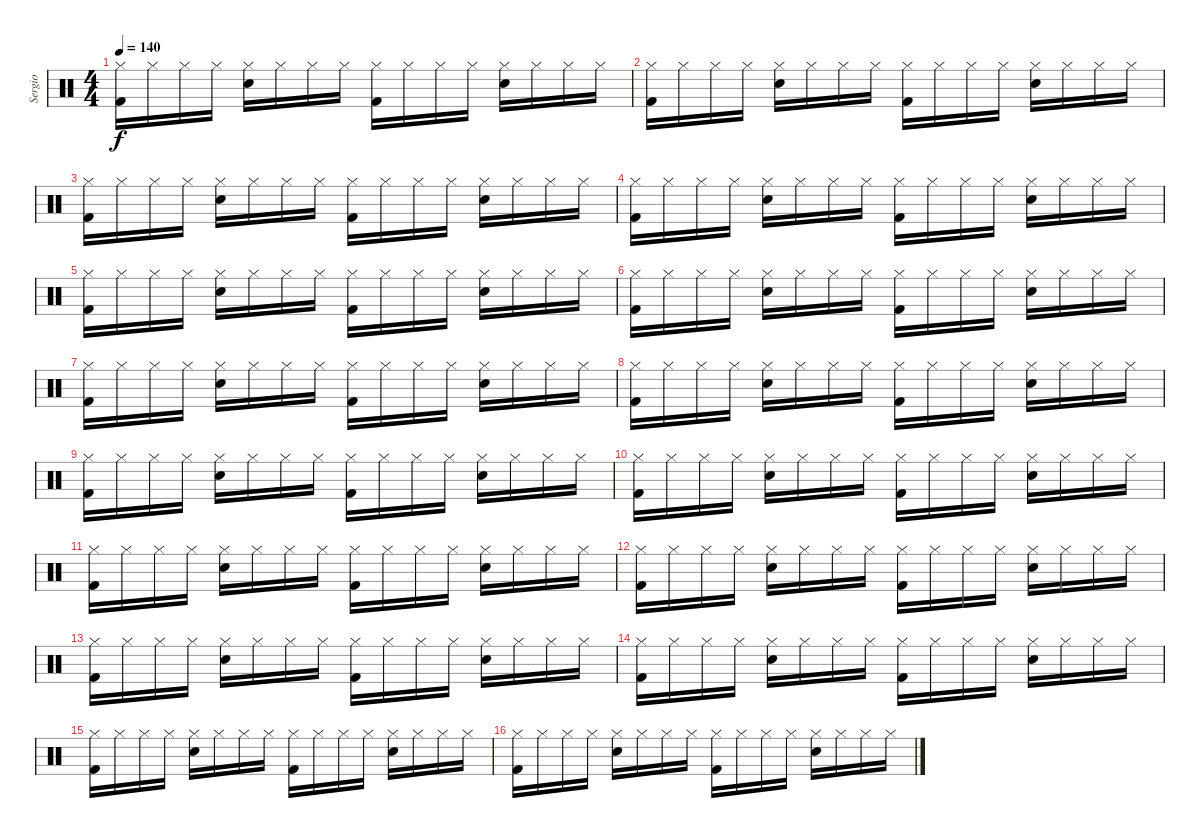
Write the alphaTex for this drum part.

\track ("Sergio" "Sergio") {instrument percussion}
\staff {score}
\articulation defaults
\ts (4 4)
\tempo 140
\clef neutral
\ks c
("Hi-Hat (closed)" "Kick (hit) 2").16{dy f} "Hi-Hat (closed)".16 "Hi-Hat (closed)".16 "Hi-Hat (closed)".16 ("Hi-Hat (closed)" "Electric Snare (hit)").16 "Hi-Hat (closed)".16 "Hi-Hat (closed)".16 "Hi-Hat (closed)".16 ("Hi-Hat (closed)" "Kick (hit) 2").16 "Hi-Hat (closed)".16 "Hi-Hat (closed)".16 "Hi-Hat (closed)".16 ("Hi-Hat (closed)" "Electric Snare (hit)").16 "Hi-Hat (closed)".16 "Hi-Hat (closed)".16 "Hi-Hat (closed)".16 |
("Hi-Hat (closed)" "Kick (hit) 2").16 "Hi-Hat (closed)".16 "Hi-Hat (closed)".16 "Hi-Hat (closed)".16 ("Hi-Hat (closed)" "Electric Snare (hit)").16 "Hi-Hat (closed)".16 "Hi-Hat (closed)".16 "Hi-Hat (closed)".16 ("Hi-Hat (closed)" "Kick (hit) 2").16 "Hi-Hat (closed)".16 "Hi-Hat (closed)".16 "Hi-Hat (closed)".16 ("Hi-Hat (closed)" "Electric Snare (hit)").16 "Hi-Hat (closed)".16 "Hi-Hat (closed)".16 "Hi-Hat (closed)".16 |
("Hi-Hat (closed)" "Kick (hit) 2").16 "Hi-Hat (closed)".16 "Hi-Hat (closed)".16 "Hi-Hat (closed)".16 ("Hi-Hat (closed)" "Electric Snare (hit)").16 "Hi-Hat (closed)".16 "Hi-Hat (closed)".16 "Hi-Hat (closed)".16 ("Hi-Hat (closed)" "Kick (hit) 2").16 "Hi-Hat (closed)".16 "Hi-Hat (closed)".16 "Hi-Hat (closed)".16 ("Hi-Hat (closed)" "Electric Snare (hit)").16 "Hi-Hat (closed)".16 "Hi-Hat (closed)".16 "Hi-Hat (closed)".16 |
("Hi-Hat (closed)" "Kick (hit) 2").16 "Hi-Hat (closed)".16 "Hi-Hat (closed)".16 "Hi-Hat (closed)".16 ("Hi-Hat (closed)" "Electric Snare (hit)").16 "Hi-Hat (closed)".16 "Hi-Hat (closed)".16 "Hi-Hat (closed)".16 ("Hi-Hat (closed)" "Kick (hit) 2").16 "Hi-Hat (closed)".16 "Hi-Hat (closed)".16 "Hi-Hat (closed)".16 ("Hi-Hat (closed)" "Electric Snare (hit)").16 "Hi-Hat (closed)".16 "Hi-Hat (closed)".16 "Hi-Hat (closed)".16 |
("Hi-Hat (closed)" "Kick (hit) 2").16 "Hi-Hat (closed)".16 "Hi-Hat (closed)".16 "Hi-Hat (closed)".16 ("Hi-Hat (closed)" "Electric Snare (hit)").16 "Hi-Hat (closed)".16 "Hi-Hat (closed)".16 "Hi-Hat (closed)".16 ("Hi-Hat (closed)" "Kick (hit) 2").16 "Hi-Hat (closed)".16 "Hi-Hat (closed)".16 "Hi-Hat (closed)".16 ("Hi-Hat (closed)" "Electric Snare (hit)").16 "Hi-Hat (closed)".16 "Hi-Hat (closed)".16 "Hi-Hat (closed)".16 |
("Hi-Hat (closed)" "Kick (hit) 2").16 "Hi-Hat (closed)".16 "Hi-Hat (closed)".16 "Hi-Hat (closed)".16 ("Hi-Hat (closed)" "Electric Snare (hit)").16 "Hi-Hat (closed)".16 "Hi-Hat (closed)".16 "Hi-Hat (closed)".16 ("Hi-Hat (closed)" "Kick (hit) 2").16 "Hi-Hat (closed)".16 "Hi-Hat (closed)".16 "Hi-Hat (closed)".16 ("Hi-Hat (closed)" "Electric Snare (hit)").16 "Hi-Hat (closed)".16 "Hi-Hat (closed)".16 "Hi-Hat (closed)".16 |
("Hi-Hat (closed)" "Kick (hit) 2").16 "Hi-Hat (closed)".16 "Hi-Hat (closed)".16 "Hi-Hat (closed)".16 ("Hi-Hat (closed)" "Electric Snare (hit)").16 "Hi-Hat (closed)".16 "Hi-Hat (closed)".16 "Hi-Hat (closed)".16 ("Hi-Hat (closed)" "Kick (hit) 2").16 "Hi-Hat (closed)".16 "Hi-Hat (closed)".16 "Hi-Hat (closed)".16 ("Hi-Hat (closed)" "Electric Snare (hit)").16 "Hi-Hat (closed)".16 "Hi-Hat (closed)".16 "Hi-Hat (closed)".16 |
("Hi-Hat (closed)" "Kick (hit) 2").16 "Hi-Hat (closed)".16 "Hi-Hat (closed)".16 "Hi-Hat (closed)".16 ("Hi-Hat (closed)" "Electric Snare (hit)").16 "Hi-Hat (closed)".16 "Hi-Hat (closed)".16 "Hi-Hat (closed)".16 ("Hi-Hat (closed)" "Kick (hit) 2").16 "Hi-Hat (closed)".16 "Hi-Hat (closed)".16 "Hi-Hat (closed)".16 ("Hi-Hat (closed)" "Electric Snare (hit)").16 "Hi-Hat (closed)".16 "Hi-Hat (closed)".16 "Hi-Hat (closed)".16 |
("Hi-Hat (closed)" "Kick (hit) 2").16 "Hi-Hat (closed)".16 "Hi-Hat (closed)".16 "Hi-Hat (closed)".16 ("Hi-Hat (closed)" "Electric Snare (hit)").16 "Hi-Hat (closed)".16 "Hi-Hat (closed)".16 "Hi-Hat (closed)".16 ("Hi-Hat (closed)" "Kick (hit) 2").16 "Hi-Hat (closed)".16 "Hi-Hat (closed)".16 "Hi-Hat (closed)".16 ("Hi-Hat (closed)" "Electric Snare (hit)").16 "Hi-Hat (closed)".16 "Hi-Hat (closed)".16 "Hi-Hat (closed)".16 |
("Hi-Hat (closed)" "Kick (hit) 2").16 "Hi-Hat (closed)".16 "Hi-Hat (closed)".16 "Hi-Hat (closed)".16 ("Hi-Hat (closed)" "Electric Snare (hit)").16 "Hi-Hat (closed)".16 "Hi-Hat (closed)".16 "Hi-Hat (closed)".16 ("Hi-Hat (closed)" "Kick (hit) 2").16 "Hi-Hat (closed)".16 "Hi-Hat (closed)".16 "Hi-Hat (closed)".16 ("Hi-Hat (closed)" "Electric Snare (hit)").16 "Hi-Hat (closed)".16 "Hi-Hat (closed)".16 "Hi-Hat (closed)".16 |
("Hi-Hat (closed)" "Kick (hit) 2").16 "Hi-Hat (closed)".16 "Hi-Hat (closed)".16 "Hi-Hat (closed)".16 ("Hi-Hat (closed)" "Electric Snare (hit)").16 "Hi-Hat (closed)".16 "Hi-Hat (closed)".16 "Hi-Hat (closed)".16 ("Hi-Hat (closed)" "Kick (hit) 2").16 "Hi-Hat (closed)".16 "Hi-Hat (closed)".16 "Hi-Hat (closed)".16 ("Hi-Hat (closed)" "Electric Snare (hit)").16 "Hi-Hat (closed)".16 "Hi-Hat (closed)".16 "Hi-Hat (closed)".16 |
("Hi-Hat (closed)" "Kick (hit) 2").16 "Hi-Hat (closed)".16 "Hi-Hat (closed)".16 "Hi-Hat (closed)".16 ("Hi-Hat (closed)" "Electric Snare (hit)").16 "Hi-Hat (closed)".16 "Hi-Hat (closed)".16 "Hi-Hat (closed)".16 ("Hi-Hat (closed)" "Kick (hit) 2").16 "Hi-Hat (closed)".16 "Hi-Hat (closed)".16 "Hi-Hat (closed)".16 ("Hi-Hat (closed)" "Electric Snare (hit)").16 "Hi-Hat (closed)".16 "Hi-Hat (closed)".16 "Hi-Hat (closed)".16 |
("Hi-Hat (closed)" "Kick (hit) 2").16 "Hi-Hat (closed)".16 "Hi-Hat (closed)".16 "Hi-Hat (closed)".16 ("Hi-Hat (closed)" "Electric Snare (hit)").16 "Hi-Hat (closed)".16 "Hi-Hat (closed)".16 "Hi-Hat (closed)".16 ("Hi-Hat (closed)" "Kick (hit) 2").16 "Hi-Hat (closed)".16 "Hi-Hat (closed)".16 "Hi-Hat (closed)".16 ("Hi-Hat (closed)" "Electric Snare (hit)").16 "Hi-Hat (closed)".16 "Hi-Hat (closed)".16 "Hi-Hat (closed)".16 |
("Hi-Hat (closed)" "Kick (hit) 2").16 "Hi-Hat (closed)".16 "Hi-Hat (closed)".16 "Hi-Hat (closed)".16 ("Hi-Hat (closed)" "Electric Snare (hit)").16 "Hi-Hat (closed)".16 "Hi-Hat (closed)".16 "Hi-Hat (closed)".16 ("Hi-Hat (closed)" "Kick (hit) 2").16 "Hi-Hat (closed)".16 "Hi-Hat (closed)".16 "Hi-Hat (closed)".16 ("Hi-Hat (closed)" "Electric Snare (hit)").16 "Hi-Hat (closed)".16 "Hi-Hat (closed)".16 "Hi-Hat (closed)".16 |
("Hi-Hat (closed)" "Kick (hit) 2").16 "Hi-Hat (closed)".16 "Hi-Hat (closed)".16 "Hi-Hat (closed)".16 ("Hi-Hat (closed)" "Electric Snare (hit)").16 "Hi-Hat (closed)".16 "Hi-Hat (closed)".16 "Hi-Hat (closed)".16 ("Hi-Hat (closed)" "Kick (hit) 2").16 "Hi-Hat (closed)".16 "Hi-Hat (closed)".16 "Hi-Hat (closed)".16 ("Hi-Hat (closed)" "Electric Snare (hit)").16 "Hi-Hat (closed)".16 "Hi-Hat (closed)".16 "Hi-Hat (closed)".16 |
("Hi-Hat (closed)" "Kick (hit) 2").16 "Hi-Hat (closed)".16 "Hi-Hat (closed)".16 "Hi-Hat (closed)".16 ("Hi-Hat (closed)" "Electric Snare (hit)").16 "Hi-Hat (closed)".16 "Hi-Hat (closed)".16 "Hi-Hat (closed)".16 ("Hi-Hat (closed)" "Kick (hit) 2").16 "Hi-Hat (closed)".16 "Hi-Hat (closed)".16 "Hi-Hat (closed)".16 ("Hi-Hat (closed)" "Electric Snare (hit)").16 "Hi-Hat (closed)".16 "Hi-Hat (closed)".16 "Hi-Hat (closed)".16
